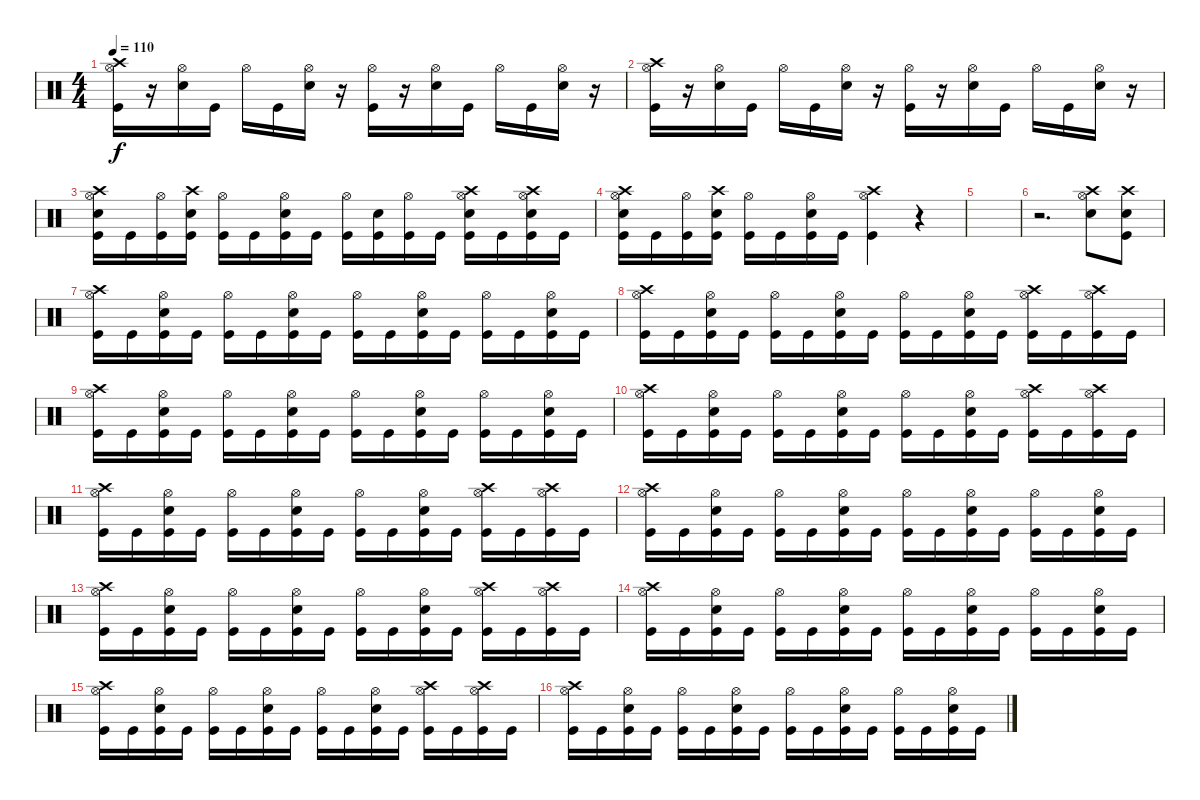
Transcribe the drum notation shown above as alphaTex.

\track "" {instrument percussion}
\staff {score}
\articulation defaults
\ts (4 4)
\tempo 110
\clef neutral
\ks c
("Crash high (hit)" "Kick (hit)" "Hi-Hat (open)").16{dy f} r.16 ("Electric Snare (hit)" "Hi-Hat (open)").16 "Kick (hit)".16 "Hi-Hat (open)".16 "Kick (hit)".16 ("Electric Snare (hit)" "Hi-Hat (open)").16 r.16 ("Hi-Hat (open)" "Kick (hit)").16 r.16 ("Hi-Hat (open)" "Electric Snare (hit)").16 "Kick (hit)".16 "Hi-Hat (open)".16 "Kick (hit)".16 ("Hi-Hat (open)" "Electric Snare (hit)").16 r.16 |
("Crash high (hit)" "Kick (hit)" "Hi-Hat (open)").16 r.16 ("Electric Snare (hit)" "Hi-Hat (open)").16 "Kick (hit)".16 "Hi-Hat (open)".16 "Kick (hit)".16 ("Electric Snare (hit)" "Hi-Hat (open)").16 r.16 ("Hi-Hat (open)" "Kick (hit)").16 r.16 ("Hi-Hat (open)" "Electric Snare (hit)").16 "Kick (hit)".16 "Hi-Hat (open)".16 "Kick (hit)".16 ("Hi-Hat (open)" "Electric Snare (hit)").16 r.16 |
("Crash high (hit)" "Electric Snare (hit)" "Kick (hit)" "Hi-Hat (open)").16 "Kick (hit)".16 ("Kick (hit)" "Hi-Hat (open)").16 ("Crash high (hit)" "Electric Snare (hit)" "Kick (hit)").16 ("Kick (hit)" "Hi-Hat (open)").16 "Kick (hit)".16 ("Electric Snare (hit)" "Kick (hit)" "Hi-Hat (open)").16 "Kick (hit)".16 ("Hi-Hat (open)" "Kick (hit)").16 ("Electric Snare (hit)" "Kick (hit)").16 ("Kick (hit)" "Hi-Hat (open)").16 "Kick (hit)".16 ("Crash high (hit)" "Electric Snare (hit)" "Hi-Hat (open)" "Kick (hit)").16 "Kick (hit)".16 ("Crash high (hit)" "Electric Snare (hit)" "Kick (hit)" "Hi-Hat (open)").16 "Kick (hit)".16 |
("Crash high (hit)" "Electric Snare (hit)" "Kick (hit)" "Hi-Hat (open)").16 "Kick (hit)".16 ("Kick (hit)" "Hi-Hat (open)").16 ("Crash high (hit)" "Electric Snare (hit)" "Kick (hit)").16 ("Kick (hit)" "Hi-Hat (open)").16 "Kick (hit)".16 ("Electric Snare (hit)" "Kick (hit)" "Hi-Hat (open)").16 "Kick (hit)".16 ("Hi-Hat (open)" "Kick (hit)" "Crash high (hit)").4 r.4 |
|
r.2{d} ("Snare (hit) 2" "Hi-Hat (open)" "Crash high (hit)").8 ("Snare (hit) 2" "Crash high (hit)" "Kick (hit)").8 |
("Crash high (hit)" "Kick (hit)" "Hi-Hat (open)").16 "Kick (hit)".16 ("Kick (hit)" "Electric Snare (hit)" "Hi-Hat (open)").16 "Kick (hit)".16 ("Kick (hit)" "Hi-Hat (open)").16 "Kick (hit)".16 ("Kick (hit)" "Electric Snare (hit)" "Hi-Hat (open)").16 "Kick (hit)".16 ("Hi-Hat (open)" "Kick (hit)").16 "Kick (hit)".16 ("Kick (hit)" "Hi-Hat (open)" "Electric Snare (hit)").16 "Kick (hit)".16 ("Hi-Hat (open)" "Kick (hit)").16 "Kick (hit)".16 ("Kick (hit)" "Hi-Hat (open)" "Electric Snare (hit)").16 "Kick (hit)".16 |
("Crash high (hit)" "Kick (hit)" "Hi-Hat (open)").16 "Kick (hit)".16 ("Kick (hit)" "Electric Snare (hit)" "Hi-Hat (open)").16 "Kick (hit)".16 ("Kick (hit)" "Hi-Hat (open)").16 "Kick (hit)".16 ("Kick (hit)" "Electric Snare (hit)" "Hi-Hat (open)").16 "Kick (hit)".16 ("Hi-Hat (open)" "Kick (hit)").16 "Kick (hit)".16 ("Kick (hit)" "Hi-Hat (open)" "Electric Snare (hit)").16 "Kick (hit)".16 ("Hi-Hat (open)" "Kick (hit)" "Crash high (hit)").16 "Kick (hit)".16 ("Kick (hit)" "Hi-Hat (open)" "Crash high (hit)").16 "Kick (hit)".16 |
("Crash high (hit)" "Kick (hit)" "Hi-Hat (open)").16 "Kick (hit)".16 ("Kick (hit)" "Electric Snare (hit)" "Hi-Hat (open)").16 "Kick (hit)".16 ("Kick (hit)" "Hi-Hat (open)").16 "Kick (hit)".16 ("Kick (hit)" "Electric Snare (hit)" "Hi-Hat (open)").16 "Kick (hit)".16 ("Hi-Hat (open)" "Kick (hit)").16 "Kick (hit)".16 ("Kick (hit)" "Hi-Hat (open)" "Electric Snare (hit)").16 "Kick (hit)".16 ("Hi-Hat (open)" "Kick (hit)").16 "Kick (hit)".16 ("Kick (hit)" "Hi-Hat (open)" "Electric Snare (hit)").16 "Kick (hit)".16 |
("Crash high (hit)" "Kick (hit)" "Hi-Hat (open)").16 "Kick (hit)".16 ("Kick (hit)" "Electric Snare (hit)" "Hi-Hat (open)").16 "Kick (hit)".16 ("Kick (hit)" "Hi-Hat (open)").16 "Kick (hit)".16 ("Kick (hit)" "Electric Snare (hit)" "Hi-Hat (open)").16 "Kick (hit)".16 ("Hi-Hat (open)" "Kick (hit)").16 "Kick (hit)".16 ("Kick (hit)" "Hi-Hat (open)" "Electric Snare (hit)").16 "Kick (hit)".16 ("Hi-Hat (open)" "Kick (hit)" "Crash high (hit)").16 "Kick (hit)".16 ("Kick (hit)" "Hi-Hat (open)" "Crash high (hit)").16 "Kick (hit)".16 |
("Crash high (hit)" "Kick (hit)" "Hi-Hat (open)").16 "Kick (hit)".16 ("Kick (hit)" "Electric Snare (hit)" "Hi-Hat (open)").16 "Kick (hit)".16 ("Kick (hit)" "Hi-Hat (open)").16 "Kick (hit)".16 ("Kick (hit)" "Electric Snare (hit)" "Hi-Hat (open)").16 "Kick (hit)".16 ("Hi-Hat (open)" "Kick (hit)").16 "Kick (hit)".16 ("Kick (hit)" "Hi-Hat (open)" "Electric Snare (hit)").16 "Kick (hit)".16 ("Hi-Hat (open)" "Kick (hit)" "Crash high (hit)").16 "Kick (hit)".16 ("Kick (hit)" "Hi-Hat (open)" "Crash high (hit)").16 "Kick (hit)".16 |
("Crash high (hit)" "Kick (hit)" "Hi-Hat (open)").16 "Kick (hit)".16 ("Kick (hit)" "Electric Snare (hit)" "Hi-Hat (open)").16 "Kick (hit)".16 ("Kick (hit)" "Hi-Hat (open)").16 "Kick (hit)".16 ("Kick (hit)" "Electric Snare (hit)" "Hi-Hat (open)").16 "Kick (hit)".16 ("Hi-Hat (open)" "Kick (hit)").16 "Kick (hit)".16 ("Kick (hit)" "Hi-Hat (open)" "Electric Snare (hit)").16 "Kick (hit)".16 ("Hi-Hat (open)" "Kick (hit)").16 "Kick (hit)".16 ("Kick (hit)" "Hi-Hat (open)" "Electric Snare (hit)").16 "Kick (hit)".16 |
("Crash high (hit)" "Kick (hit)" "Hi-Hat (open)").16 "Kick (hit)".16 ("Kick (hit)" "Electric Snare (hit)" "Hi-Hat (open)").16 "Kick (hit)".16 ("Kick (hit)" "Hi-Hat (open)").16 "Kick (hit)".16 ("Kick (hit)" "Electric Snare (hit)" "Hi-Hat (open)").16 "Kick (hit)".16 ("Hi-Hat (open)" "Kick (hit)").16 "Kick (hit)".16 ("Kick (hit)" "Hi-Hat (open)" "Electric Snare (hit)").16 "Kick (hit)".16 ("Hi-Hat (open)" "Kick (hit)" "Crash high (hit)").16 "Kick (hit)".16 ("Kick (hit)" "Hi-Hat (open)" "Crash high (hit)").16 "Kick (hit)".16 |
("Crash high (hit)" "Kick (hit)" "Hi-Hat (open)").16 "Kick (hit)".16 ("Kick (hit)" "Electric Snare (hit)" "Hi-Hat (open)").16 "Kick (hit)".16 ("Kick (hit)" "Hi-Hat (open)").16 "Kick (hit)".16 ("Kick (hit)" "Electric Snare (hit)" "Hi-Hat (open)").16 "Kick (hit)".16 ("Hi-Hat (open)" "Kick (hit)").16 "Kick (hit)".16 ("Kick (hit)" "Hi-Hat (open)" "Electric Snare (hit)").16 "Kick (hit)".16 ("Hi-Hat (open)" "Kick (hit)").16 "Kick (hit)".16 ("Kick (hit)" "Hi-Hat (open)" "Electric Snare (hit)").16 "Kick (hit)".16 |
("Crash high (hit)" "Kick (hit)" "Hi-Hat (open)").16 "Kick (hit)".16 ("Kick (hit)" "Electric Snare (hit)" "Hi-Hat (open)").16 "Kick (hit)".16 ("Kick (hit)" "Hi-Hat (open)").16 "Kick (hit)".16 ("Kick (hit)" "Electric Snare (hit)" "Hi-Hat (open)").16 "Kick (hit)".16 ("Hi-Hat (open)" "Kick (hit)").16 "Kick (hit)".16 ("Kick (hit)" "Hi-Hat (open)" "Electric Snare (hit)").16 "Kick (hit)".16 ("Hi-Hat (open)" "Kick (hit)" "Crash high (hit)").16 "Kick (hit)".16 ("Kick (hit)" "Hi-Hat (open)" "Crash high (hit)").16 "Kick (hit)".16 |
("Crash high (hit)" "Kick (hit)" "Hi-Hat (open)").16 "Kick (hit)".16 ("Kick (hit)" "Electric Snare (hit)" "Hi-Hat (open)").16 "Kick (hit)".16 ("Kick (hit)" "Hi-Hat (open)").16 "Kick (hit)".16 ("Kick (hit)" "Electric Snare (hit)" "Hi-Hat (open)").16 "Kick (hit)".16 ("Hi-Hat (open)" "Kick (hit)").16 "Kick (hit)".16 ("Kick (hit)" "Hi-Hat (open)" "Electric Snare (hit)").16 "Kick (hit)".16 ("Hi-Hat (open)" "Kick (hit)").16 "Kick (hit)".16 ("Kick (hit)" "Hi-Hat (open)" "Electric Snare (hit)").16 "Kick (hit)".16
